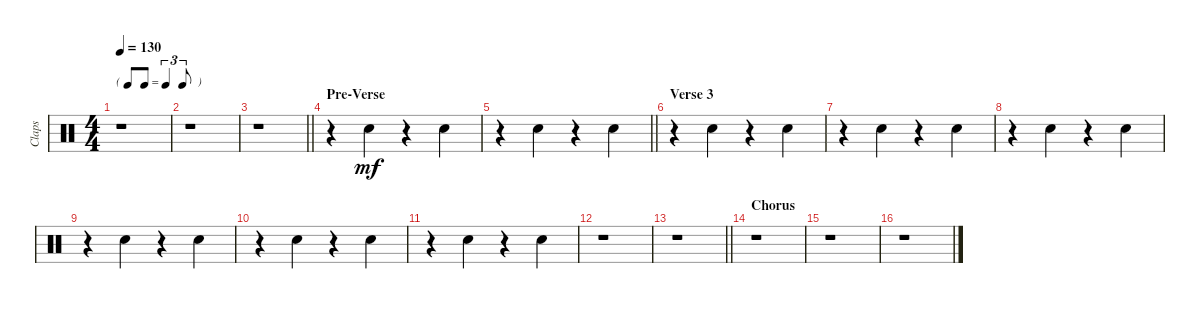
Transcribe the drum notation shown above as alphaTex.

\track ("Claps" "Claps") {instrument percussion}
\staff {score}
\articulation defaults
\ts (4 4)
\tf triplet8th
\tempo 130
\clef neutral
\ks c
r.1{dy mf} |
r.1 |
\barLineRight lightlight
r.1 |
\section ("" "Pre-Verse")
r.4 "Hand Clap (hit)".4 r.4 "Hand Clap (hit)".4 |
\barLineRight lightlight
r.4 "Hand Clap (hit)".4 r.4 "Hand Clap (hit)".4 |
\section ("" "Verse 3")
r.4 "Hand Clap (hit)".4 r.4 "Hand Clap (hit)".4 |
r.4 "Hand Clap (hit)".4 r.4 "Hand Clap (hit)".4 |
r.4 "Hand Clap (hit)".4 r.4 "Hand Clap (hit)".4 |
r.4 "Hand Clap (hit)".4 r.4 "Hand Clap (hit)".4 |
r.4 "Hand Clap (hit)".4 r.4 "Hand Clap (hit)".4 |
r.4 "Hand Clap (hit)".4 r.4 "Hand Clap (hit)".4 |
r.1 |
\barLineRight lightlight
r.1 |
\section ("" "Chorus")
r.1 |
r.1 |
r.1
